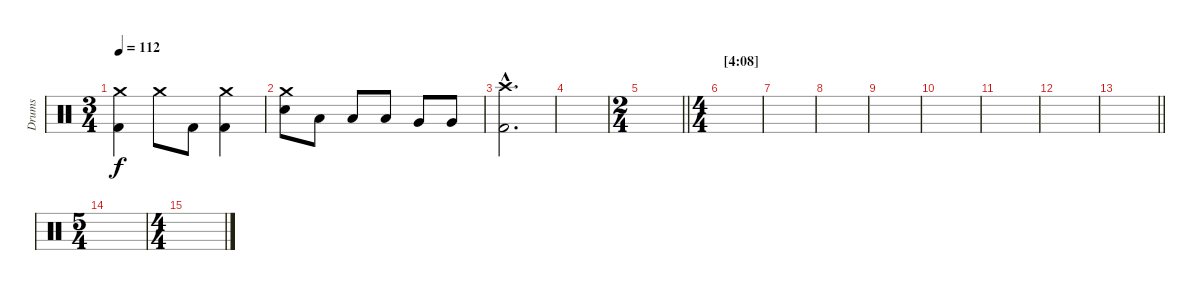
\track ("Drums" "Drums") {instrument percussion}
\staff {score}
\articulation defaults
\ts (3 4)
\tempo 112
\clef neutral
\ks c
("Crash medium (hit)" "Kick (hit) 2").4{dy f} "Crash medium (hit)".8 "Kick (hit) 2".8 ("Crash medium (hit)" "Kick (hit) 2").4 |
("Crash medium (hit)" "Electric Snare (hit)").8 "Low Tom (hit)".8 "Low Tom (hit)".8 "Low Tom (hit)".8 "Very Low Tom (hit)".8 "Very Low Tom (hit)".8 |
("Crash high (hit)"{hac} "Kick (hit) 2"{hac}).2{d} |
|
\ts (2 4)
\barLineRight lightlight
|
\ts (4 4)
\section ("" "[4:08]")
|
|
|
|
|
|
|
\barLineRight lightlight
|
\ts (5 4)
|
\ts (4 4)
